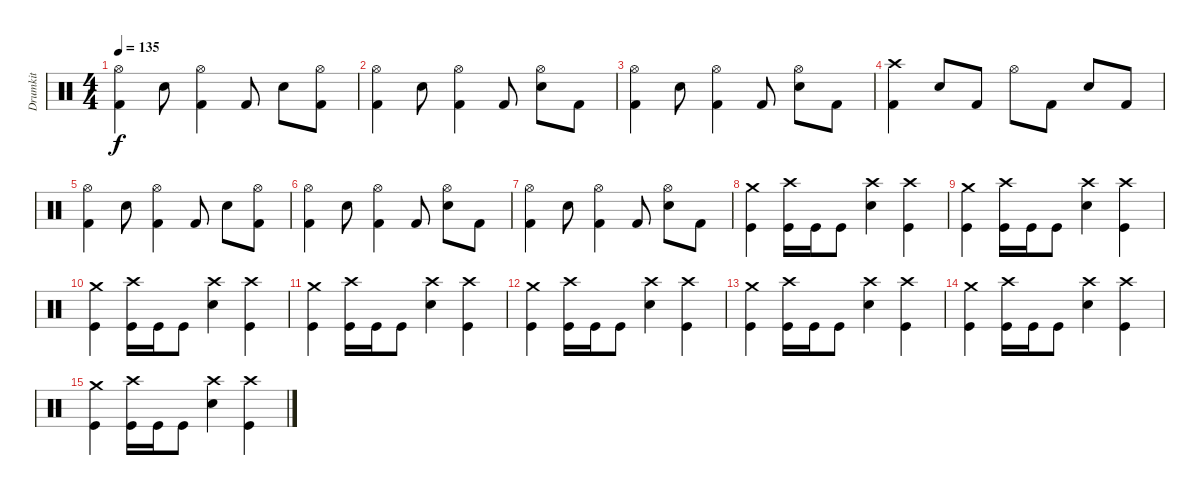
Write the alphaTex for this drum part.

\track ("Drumkit" "Drumkit") {instrument percussion}
\staff {score}
\articulation defaults
\ts (4 4)
\tempo 135
\clef neutral
\ks c
("Hi-Hat (open)" "Kick (hit) 2").4{dy f} "Snare (hit) 2".8 ("Hi-Hat (open)" "Kick (hit) 2").4 "Kick (hit) 2".8 "Snare (hit) 2".8 ("Hi-Hat (open)" "Kick (hit) 2").8 |
("Hi-Hat (open)" "Kick (hit) 2").4 "Snare (hit) 2".8 ("Hi-Hat (open)" "Kick (hit) 2").4 "Kick (hit) 2".8 ("Hi-Hat (open)" "Snare (hit) 2").8 "Kick (hit) 2".8 |
("Hi-Hat (open)" "Kick (hit) 2").4 "Snare (hit) 2".8 ("Hi-Hat (open)" "Kick (hit) 2").4 "Kick (hit) 2".8 ("Hi-Hat (open)" "Snare (hit) 2").8 "Kick (hit) 2".8 |
("Crash high (hit)" "Kick (hit) 2").4 "Snare (hit) 2".8 "Kick (hit) 2".8 "Hi-Hat (open)".8 "Kick (hit) 2".8 "Snare (hit) 2".8 "Kick (hit) 2".8 |
("Hi-Hat (open)" "Kick (hit) 2").4 "Snare (hit) 2".8 ("Hi-Hat (open)" "Kick (hit) 2").4 "Kick (hit) 2".8 "Snare (hit) 2".8 ("Hi-Hat (open)" "Kick (hit) 2").8 |
("Hi-Hat (open)" "Kick (hit) 2").4 "Snare (hit) 2".8 ("Hi-Hat (open)" "Kick (hit) 2").4 "Kick (hit) 2".8 ("Hi-Hat (open)" "Snare (hit) 2").8 "Kick (hit) 2".8 |
("Hi-Hat (open)" "Kick (hit) 2").4 "Snare (hit) 2".8 ("Hi-Hat (open)" "Kick (hit) 2").4 "Kick (hit) 2".8 ("Hi-Hat (open)" "Snare (hit) 2").8 "Kick (hit) 2".8 |
("Crash medium (hit)" "Kick (hit)").4 ("Crash high (hit)" "Kick (hit)").16 "Kick (hit)".16 "Kick (hit)".8 ("Crash high (hit)" "Snare (hit) 2").4 ("Crash high (hit)" "Kick (hit)").4 |
("Crash medium (hit)" "Kick (hit)").4 ("Crash high (hit)" "Kick (hit)").16 "Kick (hit)".16 "Kick (hit)".8 ("Crash high (hit)" "Snare (hit) 2").4 ("Crash high (hit)" "Kick (hit)").4 |
("Crash medium (hit)" "Kick (hit)").4 ("Crash high (hit)" "Kick (hit)").16 "Kick (hit)".16 "Kick (hit)".8 ("Crash high (hit)" "Snare (hit) 2").4 ("Crash high (hit)" "Kick (hit)").4 |
("Crash medium (hit)" "Kick (hit)").4 ("Crash high (hit)" "Kick (hit)").16 "Kick (hit)".16 "Kick (hit)".8 ("Crash high (hit)" "Snare (hit) 2").4 ("Crash high (hit)" "Kick (hit)").4 |
("Crash medium (hit)" "Kick (hit)").4 ("Crash high (hit)" "Kick (hit)").16 "Kick (hit)".16 "Kick (hit)".8 ("Crash high (hit)" "Snare (hit) 2").4 ("Crash high (hit)" "Kick (hit)").4 |
("Crash medium (hit)" "Kick (hit)").4 ("Crash high (hit)" "Kick (hit)").16 "Kick (hit)".16 "Kick (hit)".8 ("Crash high (hit)" "Snare (hit) 2").4 ("Crash high (hit)" "Kick (hit)").4 |
("Crash medium (hit)" "Kick (hit)").4 ("Crash high (hit)" "Kick (hit)").16 "Kick (hit)".16 "Kick (hit)".8 ("Crash high (hit)" "Snare (hit) 2").4 ("Crash high (hit)" "Kick (hit)").4 |
("Crash medium (hit)" "Kick (hit)").4 ("Crash high (hit)" "Kick (hit)").16 "Kick (hit)".16 "Kick (hit)".8 ("Crash high (hit)" "Snare (hit) 2").4 ("Crash high (hit)" "Kick (hit)").4
